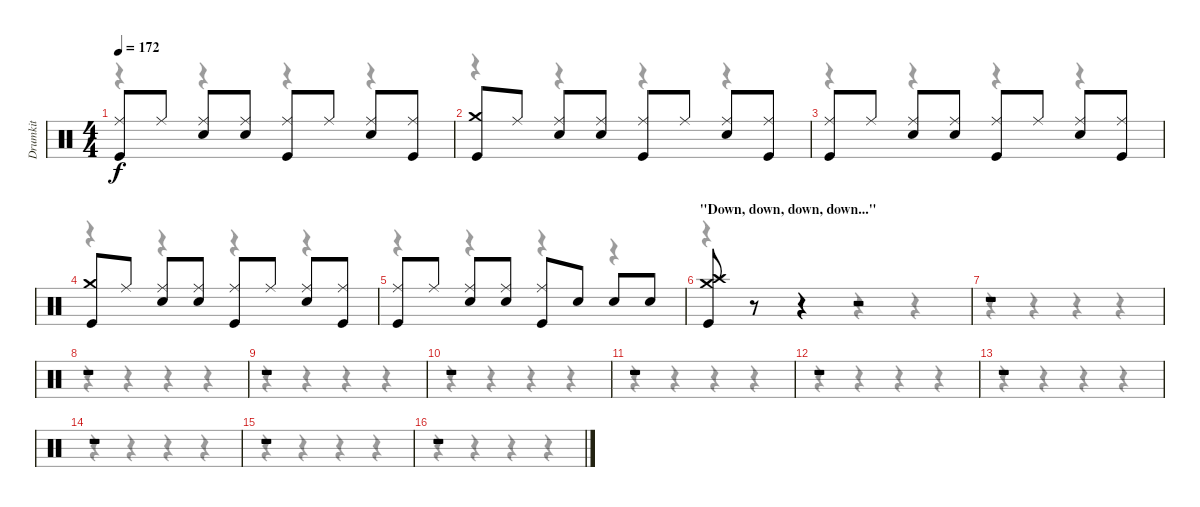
\track ("Drumkit" "Drumkit") {instrument percussion}
\staff {score}
\articulation defaults
\voice
\ts (4 4)
\tempo 172
\clef neutral
\ks c
("Ride (middle)" "Kick (hit)").8{dy f} "Ride (middle)".8 ("Ride (middle)" "Snare (hit) 2").8 ("Ride (middle)" "Snare (hit) 2").8 ("Ride (middle)" "Kick (hit)").8 "Ride (middle)".8 ("Ride (middle)" "Snare (hit) 2").8 ("Ride (middle)" "Kick (hit)").8 |
("Crash medium (hit)" "Kick (hit)").8 "Ride (middle)".8 ("Ride (middle)" "Snare (hit) 2").8 ("Ride (middle)" "Snare (hit) 2").8 ("Ride (middle)" "Kick (hit)").8 "Ride (middle)".8 ("Ride (middle)" "Snare (hit) 2").8 ("Ride (middle)" "Kick (hit)").8 |
("Ride (middle)" "Kick (hit)").8 "Ride (middle)".8 ("Ride (middle)" "Snare (hit) 2").8 ("Ride (middle)" "Snare (hit) 2").8 ("Ride (middle)" "Kick (hit)").8 "Ride (middle)".8 ("Ride (middle)" "Snare (hit) 2").8 ("Ride (middle)" "Kick (hit)").8 |
("Crash medium (hit)" "Kick (hit)").8 "Ride (middle)".8 ("Ride (middle)" "Snare (hit) 2").8 ("Ride (middle)" "Snare (hit) 2").8 ("Ride (middle)" "Kick (hit)").8 "Ride (middle)".8 ("Ride (middle)" "Snare (hit) 2").8 ("Ride (middle)" "Kick (hit)").8 |
("Ride (middle)" "Kick (hit)").8 "Ride (middle)".8 ("Ride (middle)" "Snare (hit) 2").8 ("Ride (middle)" "Snare (hit) 2").8 ("Ride (middle)" "Kick (hit)").8 "Snare (hit) 2".8 "Snare (hit) 2".8 "Snare (hit) 2".8 |
\section ("" "\"Down, down, down, down...\"")
("Crash medium (hit)" "Crash high (hit)" "Kick (hit)").8 r.8 r.4 r.2 |
r.1 |
r.1 |
r.1 |
r.1 |
r.1 |
r.1 |
r.1 |
r.1 |
r.1 |
r.1
\voice
\clef neutral
\ottava regular
\simile none
\ks c
r.4{dy f} r.4 r.4 r.4 |
r.4 r.4 r.4 r.4 |
r.4 r.4 r.4 r.4 |
r.4 r.4 r.4 r.4 |
r.4 r.4 r.4 r.4 |
r.4 r.4 r.4 r.4 |
r.4 r.4 r.4 r.4 |
r.4 r.4 r.4 r.4 |
r.4 r.4 r.4 r.4 |
r.4 r.4 r.4 r.4 |
r.4 r.4 r.4 r.4 |
r.4 r.4 r.4 r.4 |
r.4 r.4 r.4 r.4 |
r.4 r.4 r.4 r.4 |
r.4 r.4 r.4 r.4 |
r.4 r.4 r.4 r.4
